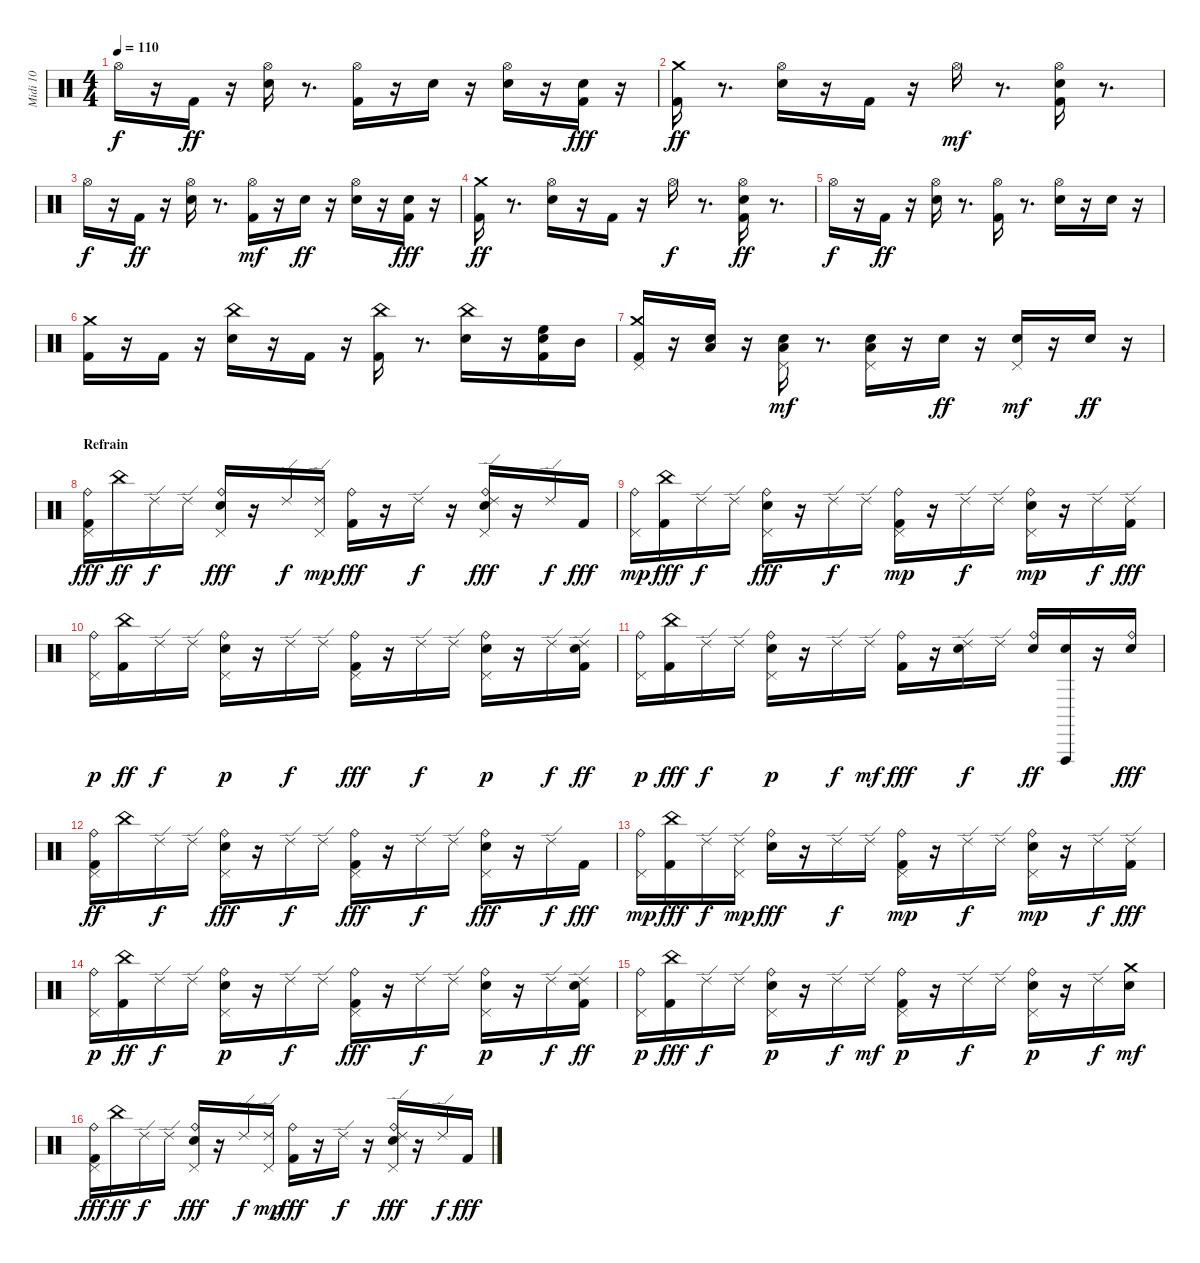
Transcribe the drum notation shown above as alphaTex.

\track ("Midi 10" "Midi 10") {instrument percussion}
\staff {score}
\articulation defaults
\ts (4 4)
\tempo 110
\clef neutral
\ks c "Hi-Hat (open)".16{dy f}
r.16 "Kick (hit) 2".16{dy ff} r.16 ("Snare (hit) 2" "Hi-Hat (open)").16 r.8{d} ("Kick (hit) 2" "Hi-Hat (open)").16 r.16 "Snare (hit) 2".16 r.16 ("Snare (hit) 2" "Hi-Hat (open)").16 r.16 ("Kick (hit) 2" "Snare (hit) 2").16{dy fff} r.16 |
("Kick (hit) 2" "Crash medium (hit)").16{dy ff} r.8{d} ("Hi-Hat (open)" "Snare (hit) 2").16 r.16 "Kick (hit) 2".16 r.16 "Hi-Hat (open)".16{dy mf} r.8{d} ("Kick (hit) 2" "Snare (hit) 2" "Hi-Hat (open)").16 r.8{d} |
"Hi-Hat (open)".16{dy f} r.16 "Kick (hit) 2".16{dy ff} r.16 ("Snare (hit) 2" "Hi-Hat (open)").16 r.8{d} ("Kick (hit) 2" "Hi-Hat (open)").16{dy mf} r.16 "Snare (hit) 2".16{dy ff} r.16 ("Snare (hit) 2" "Hi-Hat (open)").16 r.16 ("Kick (hit) 2" "Snare (hit) 2").16{dy fff} r.16 |
("Kick (hit) 2" "Crash medium (hit)").16{dy ff} r.8{d} ("Snare (hit) 2" "Hi-Hat (open)").16 r.16 "Kick (hit) 2".16 r.16 "Hi-Hat (open)".16{dy f} r.8{d} ("Snare (hit) 2" "Kick (hit) 2" "Hi-Hat (open)").16{dy ff} r.8{d} |
"Hi-Hat (open)".16{dy f} r.16 "Kick (hit) 2".16{dy ff} r.16 ("Hi-Hat (open)" "Snare (hit) 2").16 r.8{d} ("Kick (hit) 2" "Hi-Hat (open)").16 r.8{d} ("Snare (hit) 2" "Hi-Hat (open)").16 r.16 "Snare (hit) 2".16 r.16 |
("Kick (hit) 2" "Crash medium (hit)").16 r.16 "Kick (hit) 2".16 r.16 ("Snare (hit) 2" "China (hit)").16 r.16 "Kick (hit) 2".16 r.16 ("Kick (hit) 2" "China (hit)").16 r.8{d} ("China (hit)" "Snare (hit) 2").16 r.16 ("Kick (hit) 2" "Snare (hit) 2" "High Floor Tom (hit)").16 "Mid Tom (hit)".16 |
("Pedal Hi-Hat (hit)" "Kick (hit) 2" "Crash medium (hit)").16 r.16 ("Snare (hit) 2" "Low Tom (hit)").16 r.16 ("Snare (hit) 2" "Low Tom (hit)" "Pedal Hi-Hat (hit)").16{dy mf} r.8{d} ("Snare (hit) 2" "Low Tom (hit)" "Pedal Hi-Hat (hit)").16 r.16 "Snare (hit) 2".16{dy ff} r.16 ("Snare (hit) 2" "Pedal Hi-Hat (hit)").16{dy mf} r.16 "Snare (hit) 2".16{dy ff} r.16 |
\section ("" "Refrain")
("Pedal Hi-Hat (hit)" "Ride (bell)" "Kick (hit) 2").16{dy fff} "China (hit)".16{dy ff} "Ride (edge) 2".16{dy f} "Ride (edge) 2".16 ("Ride (bell)" "Pedal Hi-Hat (hit)" "Snare (hit) 2").16{dy fff} r.16 "Ride (edge) 2".16{dy f} ("Ride (edge) 2" "Pedal Hi-Hat (hit)").16{dy mp} ("Ride (bell)" "Kick (hit) 2").16{dy fff} r.16 "Ride (edge) 2".16{dy f} r.16 ("Ride (edge) 2" "Ride (bell)" "Pedal Hi-Hat (hit)" "Snare (hit) 2").16{dy fff} r.16 "Ride (edge) 2".16{dy f} "Kick (hit) 2".16{dy fff} |
("Ride (bell)" "Pedal Hi-Hat (hit)").16{dy mp} ("China (hit)" "Kick (hit) 2").16{dy fff} "Ride (edge) 2".16{dy f} "Ride (edge) 2".16 ("Pedal Hi-Hat (hit)" "Ride (bell)" "Snare (hit) 2").16{dy fff} r.16 "Ride (edge) 2".16{dy f} "Ride (edge) 2".16 ("Ride (bell)" "Kick (hit) 2" "Pedal Hi-Hat (hit)").16{dy mp} r.16 "Ride (edge) 2".16{dy f} "Ride (edge) 2".16 ("Ride (bell)" "Snare (hit) 2" "Pedal Hi-Hat (hit)").16{dy mp} r.16 "Ride (edge) 2".16{dy f} ("Ride (edge) 2" "Kick (hit) 2").16{dy fff} |
("Ride (bell)" "Pedal Hi-Hat (hit)").16{dy p} ("Kick (hit) 2" "China (hit)").16{dy ff} "Ride (edge) 2".16{dy f} "Ride (edge) 2".16 ("Ride (bell)" "Snare (hit) 2" "Pedal Hi-Hat (hit)").16{dy p} r.16 "Ride (edge) 2".16{dy f} "Ride (edge) 2".16 ("Ride (bell)" "Pedal Hi-Hat (hit)" "Kick (hit) 2").16{dy fff} r.16 "Ride (edge) 2".16{dy f} "Ride (edge) 2".16 ("Ride (bell)" "Snare (hit) 2" "Pedal Hi-Hat (hit)").16{dy p} r.16 "Ride (edge) 2".16{dy f} ("Ride (edge) 2" "Kick (hit) 2" "Snare (hit) 2").16{dy ff} |
("Ride (bell)" "Pedal Hi-Hat (hit)").16{dy p} ("China (hit)" "Kick (hit) 2").16{dy fff} "Ride (edge) 2".16{dy f} "Ride (edge) 2".16 ("Ride (bell)" "Snare (hit) 2" "Pedal Hi-Hat (hit)").16{dy p} r.16 "Ride (edge) 2".16{dy f} "Ride (edge) 2".16{dy mf} ("Ride (bell)" "Kick (hit) 2").16{dy fff} r.16 ("Ride (edge) 2" "Snare (hit) 2").16{dy f} "Ride (edge) 2".16 ("Ride (bell)" "Snare (hit) 2").16{dy ff} ("Vibraslap (hit)" "Snare (hit) 2").16 r.16 ("Ride (bell)" "Snare (hit) 2").16{dy fff} |
("Pedal Hi-Hat (hit)" "Kick (hit) 2" "Ride (bell)").16{dy ff} "China (hit)".16 "Ride (edge) 2".16{dy f} "Ride (edge) 2".16 ("Ride (bell)" "Pedal Hi-Hat (hit)" "Snare (hit) 2").16{dy fff} r.16 "Ride (edge) 2".16{dy f} "Ride (edge) 2".16 ("Pedal Hi-Hat (hit)" "Ride (bell)" "Kick (hit) 2").16{dy fff} r.16 "Ride (edge) 2".16{dy f} "Ride (edge) 2".16 ("Ride (bell)" "Pedal Hi-Hat (hit)" "Snare (hit) 2").16{dy fff} r.16 "Ride (edge) 2".16{dy f} "Kick (hit) 2".16{dy fff} |
("Ride (bell)" "Pedal Hi-Hat (hit)").16{dy mp} ("China (hit)" "Kick (hit) 2").16{dy fff} "Ride (edge) 2".16{dy f} ("Ride (edge) 2" "Pedal Hi-Hat (hit)").16{dy mp} ("Ride (bell)" "Snare (hit) 2").16{dy fff} r.16 "Ride (edge) 2".16{dy f} "Ride (edge) 2".16 ("Ride (bell)" "Kick (hit) 2" "Pedal Hi-Hat (hit)").16{dy mp} r.16 "Ride (edge) 2".16{dy f} "Ride (edge) 2".16 ("Ride (bell)" "Snare (hit) 2" "Pedal Hi-Hat (hit)").16{dy mp} r.16 "Ride (edge) 2".16{dy f} ("Ride (edge) 2" "Kick (hit) 2").16{dy fff} |
("Ride (bell)" "Pedal Hi-Hat (hit)").16{dy p} ("Kick (hit) 2" "China (hit)").16{dy ff} "Ride (edge) 2".16{dy f} "Ride (edge) 2".16 ("Ride (bell)" "Snare (hit) 2" "Pedal Hi-Hat (hit)").16{dy p} r.16 "Ride (edge) 2".16{dy f} "Ride (edge) 2".16 ("Ride (bell)" "Pedal Hi-Hat (hit)" "Kick (hit) 2").16{dy fff} r.16 "Ride (edge) 2".16{dy f} "Ride (edge) 2".16 ("Ride (bell)" "Snare (hit) 2" "Pedal Hi-Hat (hit)").16{dy p} r.16 "Ride (edge) 2".16{dy f} ("Ride (edge) 2" "Kick (hit) 2" "Snare (hit) 2").16{dy ff} |
("Ride (bell)" "Pedal Hi-Hat (hit)").16{dy p} ("China (hit)" "Kick (hit) 2").16{dy fff} "Ride (edge) 2".16{dy f} "Ride (edge) 2".16 ("Ride (bell)" "Snare (hit) 2" "Pedal Hi-Hat (hit)").16{dy p} r.16 "Ride (edge) 2".16{dy f} "Ride (edge) 2".16{dy mf} ("Ride (bell)" "Kick (hit) 2" "Pedal Hi-Hat (hit)").16{dy p} r.16 "Ride (edge) 2".16{dy f} "Ride (edge) 2".16 ("Ride (bell)" "Snare (hit) 2" "Pedal Hi-Hat (hit)").16{dy p} r.16 "Ride (edge) 2".16{dy f} ("Crash medium (hit)" "Snare (hit) 2").16{dy mf} |
("Pedal Hi-Hat (hit)" "Ride (bell)" "Kick (hit) 2").16{dy fff} "China (hit)".16{dy ff} "Ride (edge) 2".16{dy f} "Ride (edge) 2".16 ("Ride (bell)" "Pedal Hi-Hat (hit)" "Snare (hit) 2").16{dy fff} r.16 "Ride (edge) 2".16{dy f} ("Ride (edge) 2" "Pedal Hi-Hat (hit)").16{dy mp} ("Ride (bell)" "Kick (hit) 2").16{dy fff} r.16 "Ride (edge) 2".16{dy f} r.16 ("Ride (edge) 2" "Ride (bell)" "Pedal Hi-Hat (hit)" "Snare (hit) 2").16{dy fff} r.16 "Ride (edge) 2".16{dy f} "Kick (hit) 2".16{dy fff}
